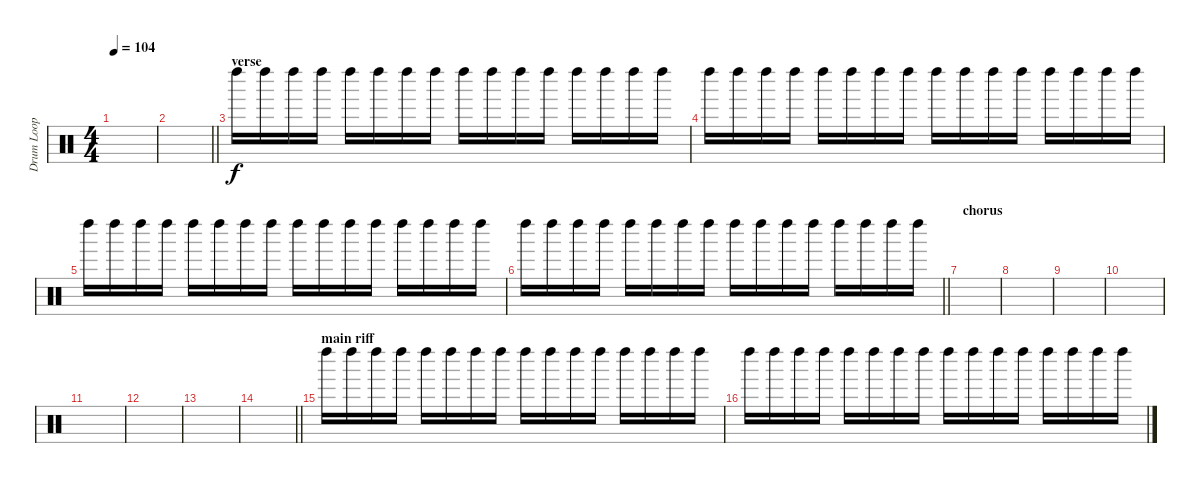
\track ("Drum Loop" "Drum Loop") {instrument percussion}
\staff {score}
\articulation defaults
\ts (4 4)
\tempo 104
\clef neutral
\ks c
|
\barLineRight lightlight
|
\section ("" "verse")
"Left Maraca (hit)".16{volume 13} "Left Maraca (hit)".16 "Left Maraca (hit)".16 "Left Maraca (hit)".16 "Left Maraca (hit)".16 "Left Maraca (hit)".16 "Left Maraca (hit)".16 "Left Maraca (hit)".16 "Left Maraca (hit)".16 "Left Maraca (hit)".16 "Left Maraca (hit)".16 "Left Maraca (hit)".16 "Left Maraca (hit)".16 "Left Maraca (hit)".16 "Left Maraca (hit)".16 "Left Maraca (hit)".16 |
"Left Maraca (hit)".16 "Left Maraca (hit)".16 "Left Maraca (hit)".16 "Left Maraca (hit)".16 "Left Maraca (hit)".16 "Left Maraca (hit)".16 "Left Maraca (hit)".16 "Left Maraca (hit)".16 "Left Maraca (hit)".16 "Left Maraca (hit)".16 "Left Maraca (hit)".16 "Left Maraca (hit)".16 "Left Maraca (hit)".16 "Left Maraca (hit)".16 "Left Maraca (hit)".16 "Left Maraca (hit)".16 |
"Left Maraca (hit)".16 "Left Maraca (hit)".16 "Left Maraca (hit)".16 "Left Maraca (hit)".16 "Left Maraca (hit)".16 "Left Maraca (hit)".16 "Left Maraca (hit)".16 "Left Maraca (hit)".16 "Left Maraca (hit)".16 "Left Maraca (hit)".16 "Left Maraca (hit)".16 "Left Maraca (hit)".16 "Left Maraca (hit)".16 "Left Maraca (hit)".16 "Left Maraca (hit)".16 "Left Maraca (hit)".16 |
\barLineRight lightlight "Left Maraca (hit)".16 "Left Maraca (hit)".16 "Left Maraca (hit)".16 "Left Maraca (hit)".16 "Left Maraca (hit)".16 "Left Maraca (hit)".16 "Left Maraca (hit)".16 "Left Maraca (hit)".16 "Left Maraca (hit)".16 "Left Maraca (hit)".16 "Left Maraca (hit)".16 "Left Maraca (hit)".16 "Left Maraca (hit)".16 "Left Maraca (hit)".16 "Left Maraca (hit)".16 "Left Maraca (hit)".16
|
\section ("" "chorus")
|
|
|
|
|
|
|
\barLineRight lightlight
|
\section ("" "main riff")
"Left Maraca (hit)".16{volume 13} "Left Maraca (hit)".16 "Left Maraca (hit)".16 "Left Maraca (hit)".16 "Left Maraca (hit)".16 "Left Maraca (hit)".16 "Left Maraca (hit)".16 "Left Maraca (hit)".16 "Left Maraca (hit)".16 "Left Maraca (hit)".16 "Left Maraca (hit)".16 "Left Maraca (hit)".16 "Left Maraca (hit)".16 "Left Maraca (hit)".16 "Left Maraca (hit)".16 "Left Maraca (hit)".16 |
"Left Maraca (hit)".16 "Left Maraca (hit)".16 "Left Maraca (hit)".16 "Left Maraca (hit)".16 "Left Maraca (hit)".16 "Left Maraca (hit)".16 "Left Maraca (hit)".16 "Left Maraca (hit)".16 "Left Maraca (hit)".16 "Left Maraca (hit)".16 "Left Maraca (hit)".16 "Left Maraca (hit)".16 "Left Maraca (hit)".16 "Left Maraca (hit)".16 "Left Maraca (hit)".16 "Left Maraca (hit)".16
